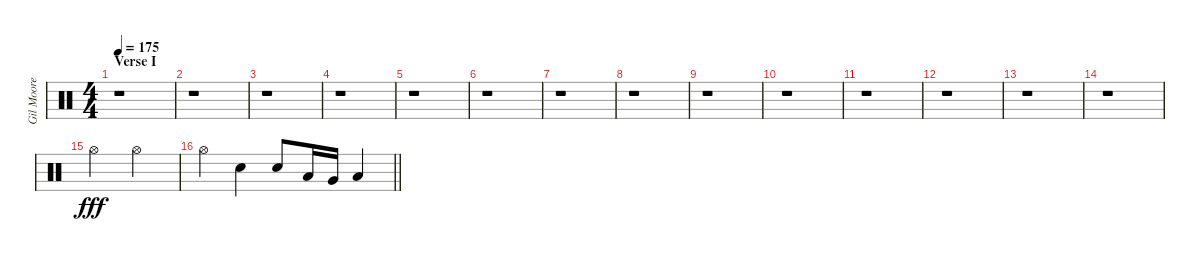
\track ("Gil Moore" "Gil Moore") {instrument percussion}
\staff {score}
\articulation defaults
\ts (4 4)
\section ("" "Verse I")
\tempo 175
\clef neutral
\ks c
r.1{dy fff} |
r.1 |
r.1 |
r.1 |
r.1 |
r.1 |
r.1 |
r.1 |
r.1 |
r.1 |
r.1 |
r.1 |
r.1 |
r.1 |
"Hi-Hat (open)".2 "Hi-Hat (open)".2 |
\barLineRight lightlight "Hi-Hat (open)".4 "Snare (hit) 2".4 "Snare (hit) 2".8 "Low Tom (hit)".16 "Very Low Tom (hit)".16 "Low Floor Tom (hit)".4
